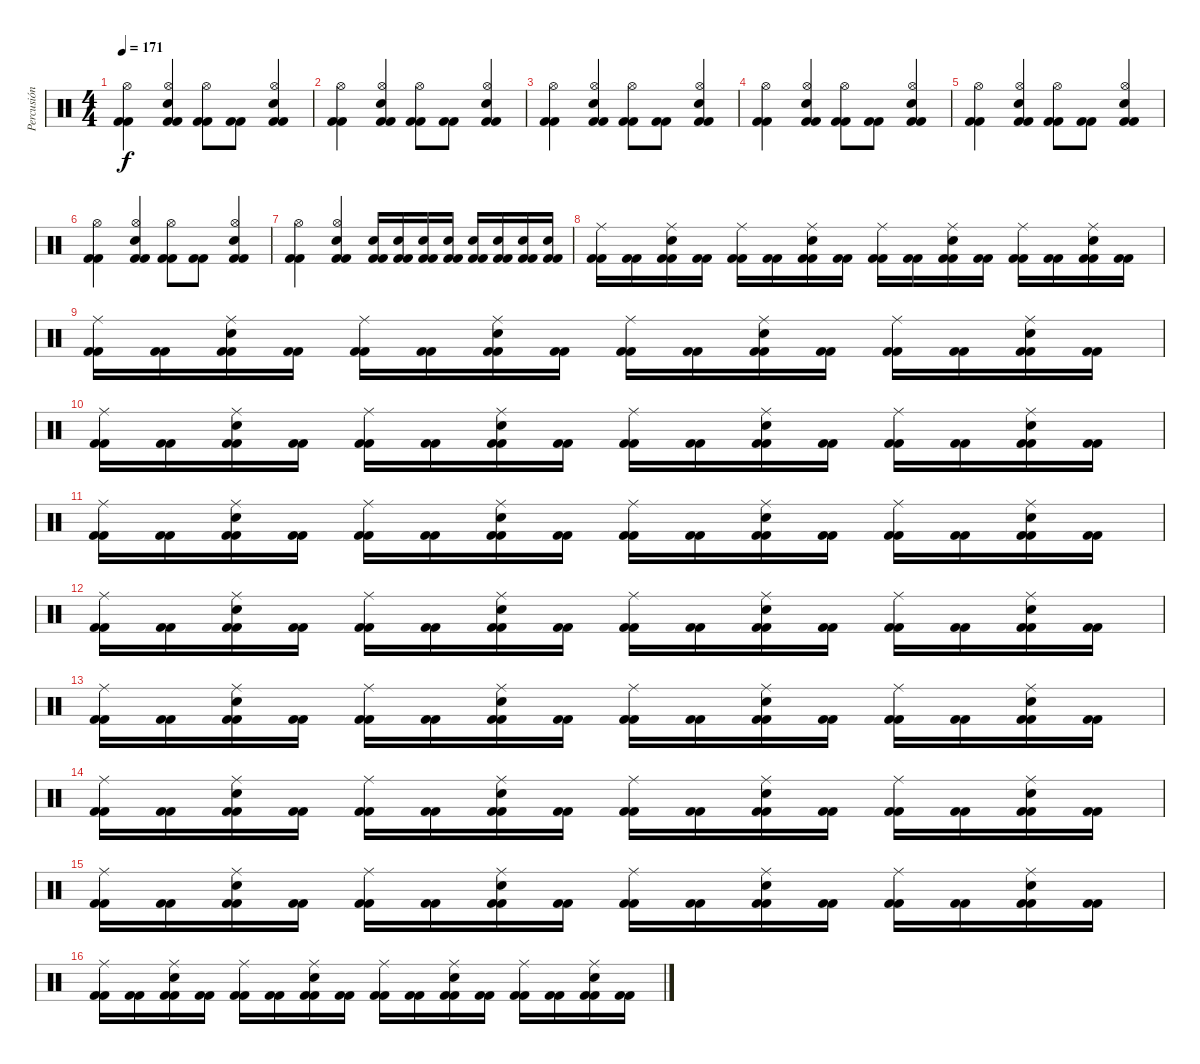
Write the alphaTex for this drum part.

\track ("Percusión" "Percusión") {instrument percussion}
\staff {score}
\articulation defaults
\ts (4 4)
\tempo 171
\clef neutral
\ks c
("Kick (hit) 2" "Kick (hit) 2" "Hi-Hat (open)").4{dy f} ("Kick (hit) 2" "Kick (hit) 2" "Electric Snare (hit)" "Hi-Hat (open)").4 ("Kick (hit) 2" "Kick (hit) 2" "Hi-Hat (open)").8 ("Kick (hit) 2" "Kick (hit) 2").8 ("Kick (hit) 2" "Kick (hit) 2" "Electric Snare (hit)" "Hi-Hat (open)").4 |
("Kick (hit) 2" "Kick (hit) 2" "Hi-Hat (open)").4 ("Kick (hit) 2" "Kick (hit) 2" "Electric Snare (hit)" "Hi-Hat (open)").4 ("Kick (hit) 2" "Kick (hit) 2" "Hi-Hat (open)").8 ("Kick (hit) 2" "Kick (hit) 2").8 ("Kick (hit) 2" "Kick (hit) 2" "Electric Snare (hit)" "Hi-Hat (open)").4 |
("Kick (hit) 2" "Kick (hit) 2" "Hi-Hat (open)").4 ("Kick (hit) 2" "Kick (hit) 2" "Electric Snare (hit)" "Hi-Hat (open)").4 ("Kick (hit) 2" "Kick (hit) 2" "Hi-Hat (open)").8 ("Kick (hit) 2" "Kick (hit) 2").8 ("Kick (hit) 2" "Kick (hit) 2" "Electric Snare (hit)" "Hi-Hat (open)").4 |
("Kick (hit) 2" "Kick (hit) 2" "Hi-Hat (open)").4 ("Kick (hit) 2" "Kick (hit) 2" "Electric Snare (hit)" "Hi-Hat (open)").4 ("Kick (hit) 2" "Kick (hit) 2" "Hi-Hat (open)").8 ("Kick (hit) 2" "Kick (hit) 2").8 ("Kick (hit) 2" "Kick (hit) 2" "Electric Snare (hit)" "Hi-Hat (open)").4 |
("Kick (hit) 2" "Kick (hit) 2" "Hi-Hat (open)").4 ("Kick (hit) 2" "Kick (hit) 2" "Electric Snare (hit)" "Hi-Hat (open)").4 ("Kick (hit) 2" "Kick (hit) 2" "Hi-Hat (open)").8 ("Kick (hit) 2" "Kick (hit) 2").8 ("Kick (hit) 2" "Kick (hit) 2" "Electric Snare (hit)" "Hi-Hat (open)").4 |
("Kick (hit) 2" "Kick (hit) 2" "Hi-Hat (open)").4 ("Kick (hit) 2" "Kick (hit) 2" "Electric Snare (hit)" "Hi-Hat (open)").4 ("Kick (hit) 2" "Kick (hit) 2" "Hi-Hat (open)").8 ("Kick (hit) 2" "Kick (hit) 2").8 ("Kick (hit) 2" "Kick (hit) 2" "Electric Snare (hit)" "Hi-Hat (open)").4 |
("Kick (hit) 2" "Kick (hit) 2" "Hi-Hat (open)").4 ("Kick (hit) 2" "Kick (hit) 2" "Electric Snare (hit)" "Hi-Hat (open)").4 ("Kick (hit) 2" "Kick (hit) 2" "Electric Snare (hit)").16 ("Kick (hit) 2" "Kick (hit) 2" "Electric Snare (hit)").16 ("Kick (hit) 2" "Kick (hit) 2" "Electric Snare (hit)").16 ("Kick (hit) 2" "Kick (hit) 2" "Electric Snare (hit)").16 ("Kick (hit) 2" "Kick (hit) 2" "Electric Snare (hit)").16 ("Kick (hit) 2" "Kick (hit) 2" "Electric Snare (hit)").16 ("Kick (hit) 2" "Kick (hit) 2" "Electric Snare (hit)").16 ("Kick (hit) 2" "Kick (hit) 2" "Electric Snare (hit)").16 |
("Kick (hit) 2" "Kick (hit) 2" "Ride (middle)").16 ("Kick (hit) 2" "Kick (hit) 2").16 ("Kick (hit) 2" "Kick (hit) 2" "Electric Snare (hit)" "Ride (middle)").16 ("Kick (hit) 2" "Kick (hit) 2").16 ("Kick (hit) 2" "Kick (hit) 2" "Ride (middle)").16 ("Kick (hit) 2" "Kick (hit) 2").16 ("Kick (hit) 2" "Kick (hit) 2" "Electric Snare (hit)" "Ride (middle)").16 ("Kick (hit) 2" "Kick (hit) 2").16 ("Kick (hit) 2" "Kick (hit) 2" "Ride (middle)").16 ("Kick (hit) 2" "Kick (hit) 2").16 ("Kick (hit) 2" "Kick (hit) 2" "Electric Snare (hit)" "Ride (middle)").16 ("Kick (hit) 2" "Kick (hit) 2").16 ("Kick (hit) 2" "Kick (hit) 2" "Ride (middle)").16 ("Kick (hit) 2" "Kick (hit) 2").16 ("Kick (hit) 2" "Kick (hit) 2" "Electric Snare (hit)" "Ride (middle)").16 ("Kick (hit) 2" "Kick (hit) 2").16 |
("Kick (hit) 2" "Kick (hit) 2" "Ride (middle)").16 ("Kick (hit) 2" "Kick (hit) 2").16 ("Kick (hit) 2" "Kick (hit) 2" "Electric Snare (hit)" "Ride (middle)").16 ("Kick (hit) 2" "Kick (hit) 2").16 ("Kick (hit) 2" "Kick (hit) 2" "Ride (middle)").16 ("Kick (hit) 2" "Kick (hit) 2").16 ("Kick (hit) 2" "Kick (hit) 2" "Electric Snare (hit)" "Ride (middle)").16 ("Kick (hit) 2" "Kick (hit) 2").16 ("Kick (hit) 2" "Kick (hit) 2" "Ride (middle)").16 ("Kick (hit) 2" "Kick (hit) 2").16 ("Kick (hit) 2" "Kick (hit) 2" "Electric Snare (hit)" "Ride (middle)").16 ("Kick (hit) 2" "Kick (hit) 2").16 ("Kick (hit) 2" "Kick (hit) 2" "Ride (middle)").16 ("Kick (hit) 2" "Kick (hit) 2").16 ("Kick (hit) 2" "Kick (hit) 2" "Electric Snare (hit)" "Ride (middle)").16 ("Kick (hit) 2" "Kick (hit) 2").16 |
("Kick (hit) 2" "Kick (hit) 2" "Ride (middle)").16 ("Kick (hit) 2" "Kick (hit) 2").16 ("Kick (hit) 2" "Kick (hit) 2" "Electric Snare (hit)" "Ride (middle)").16 ("Kick (hit) 2" "Kick (hit) 2").16 ("Kick (hit) 2" "Kick (hit) 2" "Ride (middle)").16 ("Kick (hit) 2" "Kick (hit) 2").16 ("Kick (hit) 2" "Kick (hit) 2" "Electric Snare (hit)" "Ride (middle)").16 ("Kick (hit) 2" "Kick (hit) 2").16 ("Kick (hit) 2" "Kick (hit) 2" "Ride (middle)").16 ("Kick (hit) 2" "Kick (hit) 2").16 ("Kick (hit) 2" "Kick (hit) 2" "Electric Snare (hit)" "Ride (middle)").16 ("Kick (hit) 2" "Kick (hit) 2").16 ("Kick (hit) 2" "Kick (hit) 2" "Ride (middle)").16 ("Kick (hit) 2" "Kick (hit) 2").16 ("Kick (hit) 2" "Kick (hit) 2" "Electric Snare (hit)" "Ride (middle)").16 ("Kick (hit) 2" "Kick (hit) 2").16 |
("Kick (hit) 2" "Kick (hit) 2" "Ride (middle)").16 ("Kick (hit) 2" "Kick (hit) 2").16 ("Kick (hit) 2" "Kick (hit) 2" "Electric Snare (hit)" "Ride (middle)").16 ("Kick (hit) 2" "Kick (hit) 2").16 ("Kick (hit) 2" "Kick (hit) 2" "Ride (middle)").16 ("Kick (hit) 2" "Kick (hit) 2").16 ("Kick (hit) 2" "Kick (hit) 2" "Electric Snare (hit)" "Ride (middle)").16 ("Kick (hit) 2" "Kick (hit) 2").16 ("Kick (hit) 2" "Kick (hit) 2" "Ride (middle)").16 ("Kick (hit) 2" "Kick (hit) 2").16 ("Kick (hit) 2" "Kick (hit) 2" "Electric Snare (hit)" "Ride (middle)").16 ("Kick (hit) 2" "Kick (hit) 2").16 ("Kick (hit) 2" "Kick (hit) 2" "Ride (middle)").16 ("Kick (hit) 2" "Kick (hit) 2").16 ("Kick (hit) 2" "Kick (hit) 2" "Electric Snare (hit)" "Ride (middle)").16 ("Kick (hit) 2" "Kick (hit) 2").16 |
("Kick (hit) 2" "Kick (hit) 2" "Ride (middle)").16 ("Kick (hit) 2" "Kick (hit) 2").16 ("Kick (hit) 2" "Kick (hit) 2" "Electric Snare (hit)" "Ride (middle)").16 ("Kick (hit) 2" "Kick (hit) 2").16 ("Kick (hit) 2" "Kick (hit) 2" "Ride (middle)").16 ("Kick (hit) 2" "Kick (hit) 2").16 ("Kick (hit) 2" "Kick (hit) 2" "Electric Snare (hit)" "Ride (middle)").16 ("Kick (hit) 2" "Kick (hit) 2").16 ("Kick (hit) 2" "Kick (hit) 2" "Ride (middle)").16 ("Kick (hit) 2" "Kick (hit) 2").16 ("Kick (hit) 2" "Kick (hit) 2" "Electric Snare (hit)" "Ride (middle)").16 ("Kick (hit) 2" "Kick (hit) 2").16 ("Kick (hit) 2" "Kick (hit) 2" "Ride (middle)").16 ("Kick (hit) 2" "Kick (hit) 2").16 ("Kick (hit) 2" "Kick (hit) 2" "Electric Snare (hit)" "Ride (middle)").16 ("Kick (hit) 2" "Kick (hit) 2").16 |
("Kick (hit) 2" "Kick (hit) 2" "Ride (middle)").16 ("Kick (hit) 2" "Kick (hit) 2").16 ("Kick (hit) 2" "Kick (hit) 2" "Electric Snare (hit)" "Ride (middle)").16 ("Kick (hit) 2" "Kick (hit) 2").16 ("Kick (hit) 2" "Kick (hit) 2" "Ride (middle)").16 ("Kick (hit) 2" "Kick (hit) 2").16 ("Kick (hit) 2" "Kick (hit) 2" "Electric Snare (hit)" "Ride (middle)").16 ("Kick (hit) 2" "Kick (hit) 2").16 ("Kick (hit) 2" "Kick (hit) 2" "Ride (middle)").16 ("Kick (hit) 2" "Kick (hit) 2").16 ("Kick (hit) 2" "Kick (hit) 2" "Electric Snare (hit)" "Ride (middle)").16 ("Kick (hit) 2" "Kick (hit) 2").16 ("Kick (hit) 2" "Kick (hit) 2" "Ride (middle)").16 ("Kick (hit) 2" "Kick (hit) 2").16 ("Kick (hit) 2" "Kick (hit) 2" "Electric Snare (hit)" "Ride (middle)").16 ("Kick (hit) 2" "Kick (hit) 2").16 |
("Kick (hit) 2" "Kick (hit) 2" "Ride (middle)").16 ("Kick (hit) 2" "Kick (hit) 2").16 ("Kick (hit) 2" "Kick (hit) 2" "Electric Snare (hit)" "Ride (middle)").16 ("Kick (hit) 2" "Kick (hit) 2").16 ("Kick (hit) 2" "Kick (hit) 2" "Ride (middle)").16 ("Kick (hit) 2" "Kick (hit) 2").16 ("Kick (hit) 2" "Kick (hit) 2" "Electric Snare (hit)" "Ride (middle)").16 ("Kick (hit) 2" "Kick (hit) 2").16 ("Kick (hit) 2" "Kick (hit) 2" "Ride (middle)").16 ("Kick (hit) 2" "Kick (hit) 2").16 ("Kick (hit) 2" "Kick (hit) 2" "Electric Snare (hit)" "Ride (middle)").16 ("Kick (hit) 2" "Kick (hit) 2").16 ("Kick (hit) 2" "Kick (hit) 2" "Ride (middle)").16 ("Kick (hit) 2" "Kick (hit) 2").16 ("Kick (hit) 2" "Kick (hit) 2" "Electric Snare (hit)" "Ride (middle)").16 ("Kick (hit) 2" "Kick (hit) 2").16 |
("Kick (hit) 2" "Kick (hit) 2" "Ride (middle)").16 ("Kick (hit) 2" "Kick (hit) 2").16 ("Kick (hit) 2" "Kick (hit) 2" "Electric Snare (hit)" "Ride (middle)").16 ("Kick (hit) 2" "Kick (hit) 2").16 ("Kick (hit) 2" "Kick (hit) 2" "Ride (middle)").16 ("Kick (hit) 2" "Kick (hit) 2").16 ("Kick (hit) 2" "Kick (hit) 2" "Electric Snare (hit)" "Ride (middle)").16 ("Kick (hit) 2" "Kick (hit) 2").16 ("Kick (hit) 2" "Kick (hit) 2" "Ride (middle)").16 ("Kick (hit) 2" "Kick (hit) 2").16 ("Kick (hit) 2" "Kick (hit) 2" "Electric Snare (hit)" "Ride (middle)").16 ("Kick (hit) 2" "Kick (hit) 2").16 ("Kick (hit) 2" "Kick (hit) 2" "Ride (middle)").16 ("Kick (hit) 2" "Kick (hit) 2").16 ("Kick (hit) 2" "Kick (hit) 2" "Electric Snare (hit)" "Ride (middle)").16 ("Kick (hit) 2" "Kick (hit) 2").16 |
("Kick (hit) 2" "Kick (hit) 2" "Ride (middle)").16 ("Kick (hit) 2" "Kick (hit) 2").16 ("Kick (hit) 2" "Kick (hit) 2" "Electric Snare (hit)" "Ride (middle)").16 ("Kick (hit) 2" "Kick (hit) 2").16 ("Kick (hit) 2" "Kick (hit) 2" "Ride (middle)").16 ("Kick (hit) 2" "Kick (hit) 2").16 ("Kick (hit) 2" "Kick (hit) 2" "Electric Snare (hit)" "Ride (middle)").16 ("Kick (hit) 2" "Kick (hit) 2").16 ("Kick (hit) 2" "Kick (hit) 2" "Ride (middle)").16 ("Kick (hit) 2" "Kick (hit) 2").16 ("Kick (hit) 2" "Kick (hit) 2" "Electric Snare (hit)" "Ride (middle)").16 ("Kick (hit) 2" "Kick (hit) 2").16 ("Kick (hit) 2" "Kick (hit) 2" "Ride (middle)").16 ("Kick (hit) 2" "Kick (hit) 2").16 ("Kick (hit) 2" "Kick (hit) 2" "Electric Snare (hit)" "Ride (middle)").16 ("Kick (hit) 2" "Kick (hit) 2").16
